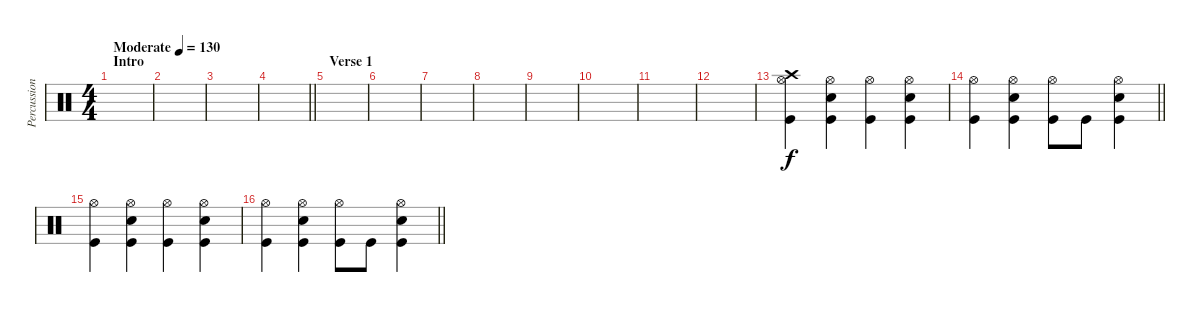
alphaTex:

\track ("Percussion" "Percussion") {instrument percussion}
\staff {score}
\articulation defaults
\ts (4 4)
\section ("" "Intro")
\tempo (130 "Moderate")
\clef neutral
\ks c
|
|
|
\barLineRight lightlight
|
\section ("" "Verse 1")
|
|
|
|
|
|
|
|
("Crash high (hit)" "Hi-Hat (open)" "Kick (hit)").4 ("Hi-Hat (open)" "Snare (hit) 2" "Kick (hit)").4 ("Hi-Hat (open)" "Kick (hit)").4 ("Hi-Hat (open)" "Snare (hit) 2" "Kick (hit)").4 |
\barLineRight lightlight
("Hi-Hat (open)" "Kick (hit)").4 ("Hi-Hat (open)" "Snare (hit) 2" "Kick (hit)").4 ("Hi-Hat (open)" "Kick (hit)").8 "Kick (hit)".8 ("Hi-Hat (open)" "Snare (hit) 2" "Kick (hit)").4 |
\section ("" "")
("Hi-Hat (open)" "Kick (hit)").4 ("Hi-Hat (open)" "Snare (hit) 2" "Kick (hit)").4 ("Hi-Hat (open)" "Kick (hit)").4 ("Hi-Hat (open)" "Snare (hit) 2" "Kick (hit)").4 |
\barLineRight lightlight
("Hi-Hat (open)" "Kick (hit)").4 ("Hi-Hat (open)" "Snare (hit) 2" "Kick (hit)").4 ("Hi-Hat (open)" "Kick (hit)").8 "Kick (hit)".8 ("Hi-Hat (open)" "Snare (hit) 2" "Kick (hit)").4
